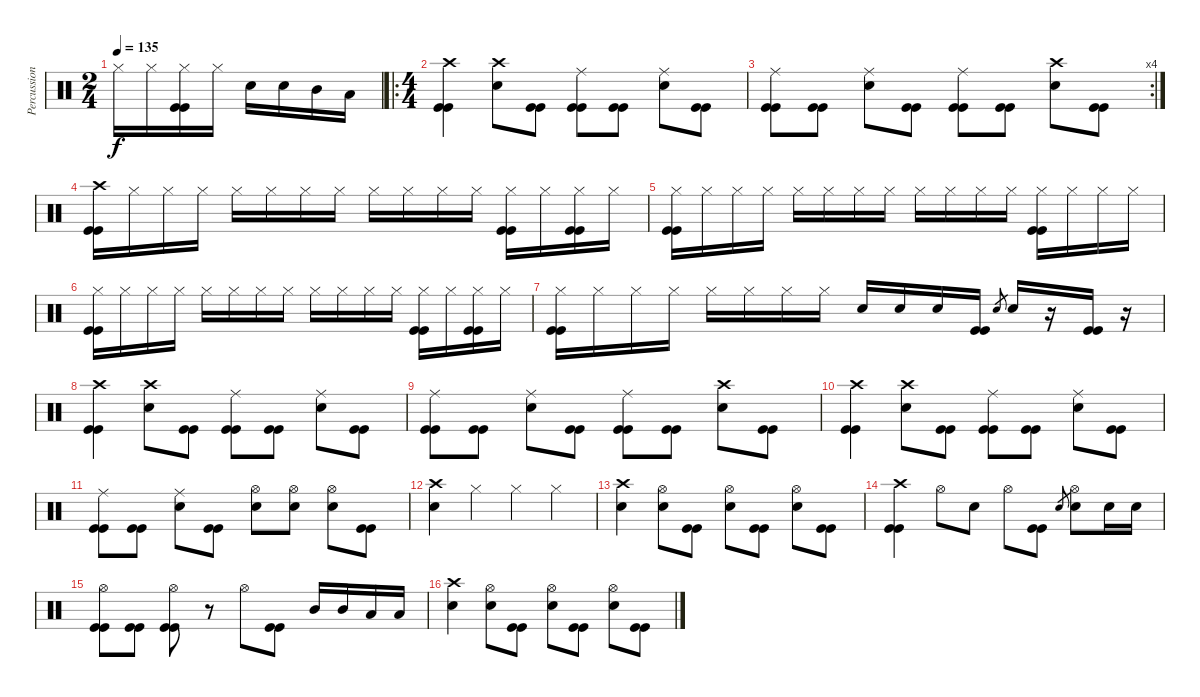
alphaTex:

\track ("Percussion" "Percussion") {instrument percussion}
\staff {score}
\articulation defaults
\ts (2 4)
\tempo 135
\clef neutral
\ks c "Hi-Hat (closed)".16{dy f} "Hi-Hat (closed)".16
("Hi-Hat (closed)" "Kick (hit)" "Kick (hit)").16 "Hi-Hat (closed)".16 "Electric Snare (hit)".16 "Electric Snare (hit)".16 "Mid Tom (hit)".16 "Low Tom (hit)".16 |
\ro
\ts (4 4)
("Crash high (hit)" "Kick (hit)" "Kick (hit)").4 ("Crash high (hit)" "Electric Snare (hit)").8 ("Kick (hit)" "Kick (hit)").8 ("Ride (middle)" "Kick (hit)" "Kick (hit)").8 ("Kick (hit)" "Kick (hit)").8 ("Ride (middle)" "Electric Snare (hit)").8 ("Kick (hit)" "Kick (hit)").8 |
\rc 4
("Ride (middle)" "Kick (hit)" "Kick (hit)").8 ("Kick (hit)" "Kick (hit)").8 ("Ride (middle)" "Electric Snare (hit)").8 ("Kick (hit)" "Kick (hit)").8 ("Ride (middle)" "Kick (hit)" "Kick (hit)").8 ("Kick (hit)" "Kick (hit)").8 ("Crash high (hit)" "Electric Snare (hit)").8 ("Kick (hit)" "Kick (hit)").8 |
("Crash high (hit)" "Kick (hit)" "Kick (hit)").16 "Hi-Hat (closed)".16 "Hi-Hat (closed)".16 "Hi-Hat (closed)".16 "Hi-Hat (closed)".16 "Hi-Hat (closed)".16 "Hi-Hat (closed)".16 "Hi-Hat (closed)".16 "Hi-Hat (closed)".16 "Hi-Hat (closed)".16 "Hi-Hat (closed)".16 "Hi-Hat (closed)".16 ("Hi-Hat (closed)" "Kick (hit)" "Kick (hit)").16 "Hi-Hat (closed)".16 ("Hi-Hat (closed)" "Kick (hit)" "Kick (hit)").16 "Hi-Hat (closed)".16 |
("Hi-Hat (closed)" "Kick (hit)" "Kick (hit)").16 "Hi-Hat (closed)".16 "Hi-Hat (closed)".16 "Hi-Hat (closed)".16 "Hi-Hat (closed)".16 "Hi-Hat (closed)".16 "Hi-Hat (closed)".16 "Hi-Hat (closed)".16 "Hi-Hat (closed)".16 "Hi-Hat (closed)".16 "Hi-Hat (closed)".16 "Hi-Hat (closed)".16 ("Hi-Hat (closed)" "Kick (hit)" "Kick (hit)").16 "Hi-Hat (closed)".16 "Hi-Hat (closed)".16 "Hi-Hat (closed)".16 |
("Hi-Hat (closed)" "Kick (hit)" "Kick (hit)").16 "Hi-Hat (closed)".16 "Hi-Hat (closed)".16 "Hi-Hat (closed)".16 "Hi-Hat (closed)".16 "Hi-Hat (closed)".16 "Hi-Hat (closed)".16 "Hi-Hat (closed)".16 "Hi-Hat (closed)".16 "Hi-Hat (closed)".16 "Hi-Hat (closed)".16 "Hi-Hat (closed)".16 ("Hi-Hat (closed)" "Kick (hit)" "Kick (hit)").16 "Hi-Hat (closed)".16 ("Hi-Hat (closed)" "Kick (hit)" "Kick (hit)").16 "Hi-Hat (closed)".16 |
("Hi-Hat (closed)" "Kick (hit)" "Kick (hit)").16 "Hi-Hat (closed)".16 "Hi-Hat (closed)".16 "Hi-Hat (closed)".16 "Hi-Hat (closed)".16 "Hi-Hat (closed)".16 "Hi-Hat (closed)".16 "Hi-Hat (closed)".16 "Electric Snare (hit)".16 "Electric Snare (hit)".16 "Electric Snare (hit)".16 ("Kick (hit)" "Kick (hit)").16 "Electric Snare (hit)".8{gr} "Electric Snare (hit)".16 r.16 ("Kick (hit)" "Kick (hit)").16 r.16 |
("Crash high (hit)" "Kick (hit)" "Kick (hit)").4 ("Crash high (hit)" "Electric Snare (hit)").8 ("Kick (hit)" "Kick (hit)").8 ("Ride (middle)" "Kick (hit)" "Kick (hit)").8 ("Kick (hit)" "Kick (hit)").8 ("Ride (middle)" "Electric Snare (hit)").8 ("Kick (hit)" "Kick (hit)").8 |
("Ride (middle)" "Kick (hit)" "Kick (hit)").8 ("Kick (hit)" "Kick (hit)").8 ("Ride (middle)" "Electric Snare (hit)").8 ("Kick (hit)" "Kick (hit)").8 ("Ride (middle)" "Kick (hit)" "Kick (hit)").8 ("Kick (hit)" "Kick (hit)").8 ("Crash high (hit)" "Electric Snare (hit)").8 ("Kick (hit)" "Kick (hit)").8 |
("Crash high (hit)" "Kick (hit)" "Kick (hit)").4 ("Crash high (hit)" "Electric Snare (hit)").8 ("Kick (hit)" "Kick (hit)").8 ("Ride (middle)" "Kick (hit)" "Kick (hit)").8 ("Kick (hit)" "Kick (hit)").8 ("Ride (middle)" "Electric Snare (hit)").8 ("Kick (hit)" "Kick (hit)").8 |
("Ride (middle)" "Kick (hit)" "Kick (hit)").8 ("Kick (hit)" "Kick (hit)").8 ("Ride (middle)" "Electric Snare (hit)").8 ("Kick (hit)" "Kick (hit)").8 ("Hi-Hat (open)" "Electric Snare (hit)").8 ("Hi-Hat (open)" "Electric Snare (hit)").8 ("Hi-Hat (open)" "Electric Snare (hit)").8 ("Kick (hit)" "Kick (hit)").8 |
("Crash high (hit)" "Electric Snare (hit)").4 "Hi-Hat (closed)".4 "Hi-Hat (closed)".4 "Hi-Hat (closed)".4 |
("Crash high (hit)" "Electric Snare (hit)").4 ("Hi-Hat (open)" "Electric Snare (hit)").8 ("Kick (hit)" "Kick (hit)").8 ("Hi-Hat (open)" "Electric Snare (hit)").8 ("Kick (hit)" "Kick (hit)").8 ("Hi-Hat (open)" "Electric Snare (hit)").8 ("Kick (hit)" "Kick (hit)").8 |
("Crash high (hit)" "Kick (hit)" "Kick (hit)").4 "Hi-Hat (open)".8 "Electric Snare (hit)".8 "Hi-Hat (open)".8 ("Kick (hit)" "Kick (hit)").8 "Electric Snare (hit)".8{gr} ("Hi-Hat (open)" "Electric Snare (hit)").8 "Electric Snare (hit)".16 "Electric Snare (hit)".16 |
("Hi-Hat (open)" "Kick (hit)" "Kick (hit)").8 ("Kick (hit)" "Kick (hit)").8 ("Hi-Hat (open)" "Kick (hit)" "Kick (hit)").8 r.8 "Hi-Hat (open)".8 ("Kick (hit)" "Kick (hit)").8 "Mid Tom (hit)".16 "Mid Tom (hit)".16 "Low Floor Tom (hit)".16 "Low Floor Tom (hit)".16 |
("Crash high (hit)" "Electric Snare (hit)").4 ("Hi-Hat (open)" "Electric Snare (hit)").8 ("Kick (hit)" "Kick (hit)").8 ("Hi-Hat (open)" "Electric Snare (hit)").8 ("Kick (hit)" "Kick (hit)").8 ("Hi-Hat (open)" "Electric Snare (hit)").8 ("Kick (hit)" "Kick (hit)").8
